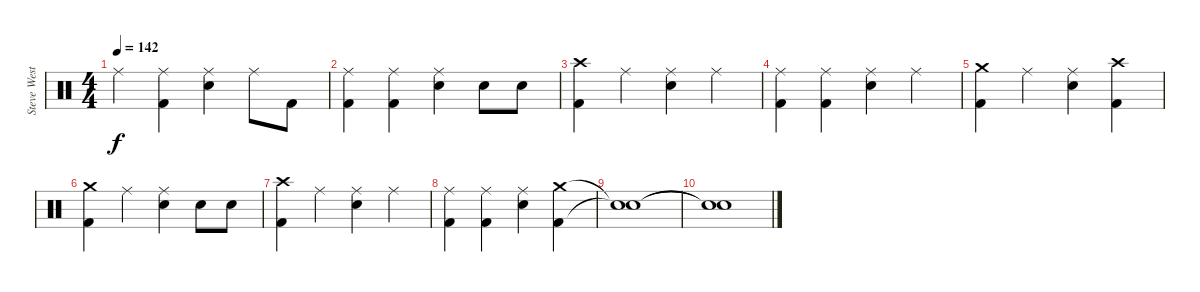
\track ("Steve West" "Steve West") {instrument percussion}
\staff {score}
\articulation defaults
\ts (4 4)
\tempo 142
\clef neutral
\ks c "Ride (middle)".4{dy f}
("Kick (hit) 2" "Ride (middle)").4 ("Electric Snare (hit)" "Ride (middle)").4 "Ride (middle)".8 "Kick (hit) 2".8 |
("Kick (hit) 2" "Ride (middle)").4 ("Kick (hit) 2" "Ride (middle)").4 ("Electric Snare (hit)" "Ride (middle)").4 "Electric Snare (hit)".8 "Electric Snare (hit)".8 |
("Kick (hit) 2" "Crash high (hit)").4 "Ride (middle)".4 ("Electric Snare (hit)" "Ride (middle)").4 "Ride (middle)".4 |
("Kick (hit) 2" "Ride (middle)").4 ("Kick (hit) 2" "Ride (middle)").4 ("Electric Snare (hit)" "Ride (middle)").4 "Ride (middle)".4 |
("Kick (hit) 2" "Crash medium (hit)").4 "Ride (middle)".4 ("Electric Snare (hit)" "Ride (middle)").4 ("Kick (hit) 2" "Crash high (hit)").4 |
("Kick (hit) 2" "Crash medium (hit)").4 "Ride (middle)".4 ("Electric Snare (hit)" "Ride (middle)").4 "Electric Snare (hit)".8 "Electric Snare (hit)".8 |
("Kick (hit) 2" "Crash high (hit)").4 "Ride (middle)".4 ("Electric Snare (hit)" "Ride (middle)").4 "Ride (middle)".4 |
("Kick (hit) 2" "Ride (middle)").4 ("Kick (hit) 2" "Ride (middle)").4 ("Electric Snare (hit)" "Ride (middle)").4 ("Kick (hit) 2" "Crash medium (hit)").4 |
("Snare (hit)"{t} "Snare (hit)"{t}).1 |
("Snare (hit)"{t} "Snare (hit)"{t}).1
